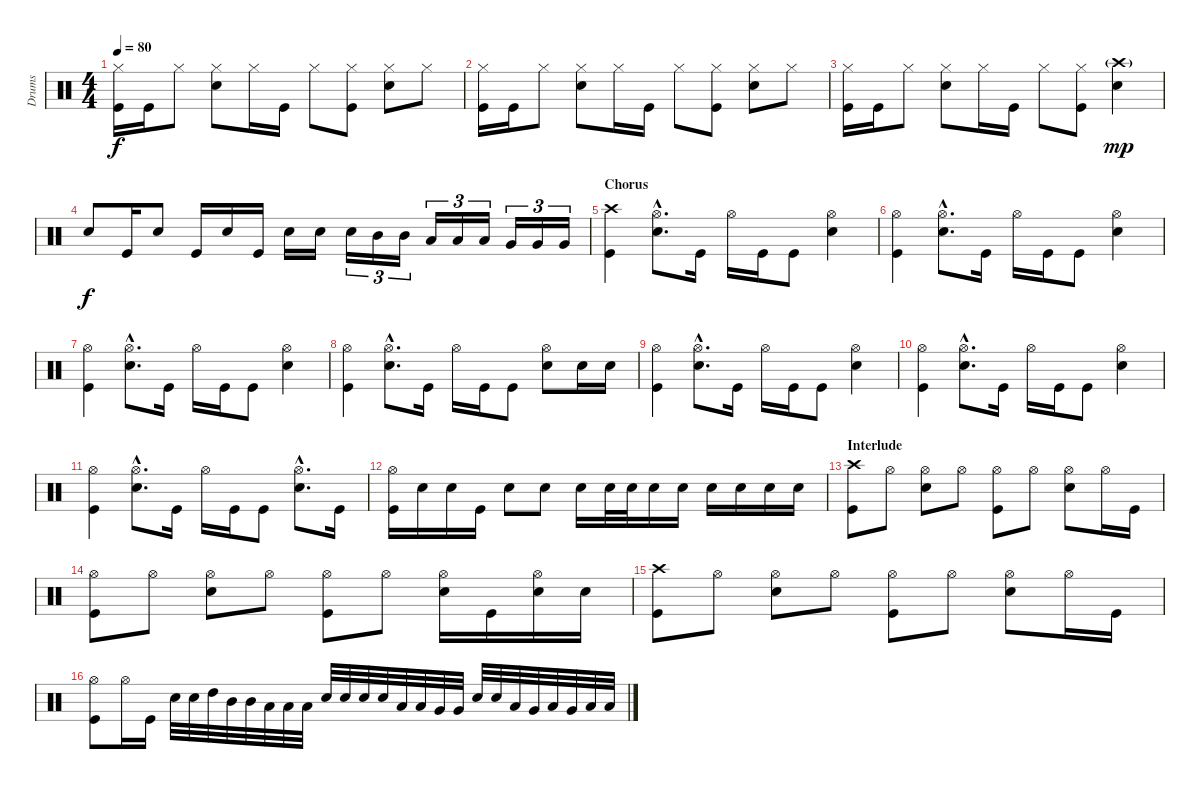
\track ("Drums" "Drums") {instrument percussion}
\staff {score}
\articulation defaults
\ts (4 4)
\tempo 80
\clef neutral
\ks c
("Hi-Hat (closed)" "Kick (hit)").16{dy f} "Kick (hit)".16 "Hi-Hat (closed)".8 ("Hi-Hat (closed)" "Electric Snare (hit)").8 "Hi-Hat (closed)".16 "Kick (hit)".16 "Hi-Hat (closed)".8 ("Hi-Hat (closed)" "Kick (hit)").8 ("Hi-Hat (closed)" "Electric Snare (hit)").8 "Hi-Hat (closed)".8 |
("Hi-Hat (closed)" "Kick (hit)").16 "Kick (hit)".16 "Hi-Hat (closed)".8 ("Hi-Hat (closed)" "Electric Snare (hit)").8 "Hi-Hat (closed)".16 "Kick (hit)".16 "Hi-Hat (closed)".8 ("Hi-Hat (closed)" "Kick (hit)").8 ("Hi-Hat (closed)" "Electric Snare (hit)").8 "Hi-Hat (closed)".8 |
("Hi-Hat (closed)" "Kick (hit)").16 "Kick (hit)".16 "Hi-Hat (closed)".8 ("Hi-Hat (closed)" "Electric Snare (hit)").8 "Hi-Hat (closed)".16 "Kick (hit)".16 "Hi-Hat (closed)".8 ("Hi-Hat (closed)" "Kick (hit)").8 ("Crash high (hit)"{g} "Electric Snare (hit)").4{dy mp} |
"Electric Snare (hit)".8{dy f} "Kick (hit)".16 "Electric Snare (hit)".8 "Kick (hit)".16 "Electric Snare (hit)".16 "Kick (hit)".16 "Electric Snare (hit)".16 "Electric Snare (hit)".16 "Electric Snare (hit)".16{tu (3 2)} "Mid Tom (hit)".16{tu (3 2)} "Mid Tom (hit)".16{tu (3 2)} "Low Tom (hit)".16{tu (3 2)} "Low Tom (hit)".16{tu (3 2)} "Low Tom (hit)".16{tu (3 2)} "Very Low Tom (hit)".16{tu (3 2)} "Very Low Tom (hit)".16{tu (3 2)} "Very Low Tom (hit)".16{tu (3 2)} |
\section ("" "Chorus")
("Crash high (hit)" "Kick (hit)").4 ("Hi-Hat (open)"{hac} "Electric Snare (hit)"{hac}).8{d} "Kick (hit)".16 "Hi-Hat (open)".16 "Kick (hit)".16 "Kick (hit)".8 ("Hi-Hat (open)" "Electric Snare (hit)").4 |
("Hi-Hat (open)" "Kick (hit)").4 ("Hi-Hat (open)"{hac} "Electric Snare (hit)"{hac}).8{d} "Kick (hit)".16 "Hi-Hat (open)".16 "Kick (hit)".16 "Kick (hit)".8 ("Hi-Hat (open)" "Electric Snare (hit)").4 |
("Hi-Hat (open)" "Kick (hit)").4 ("Hi-Hat (open)"{hac} "Electric Snare (hit)"{hac}).8{d} "Kick (hit)".16 "Hi-Hat (open)".16 "Kick (hit)".16 "Kick (hit)".8 ("Hi-Hat (open)" "Electric Snare (hit)").4 |
("Hi-Hat (open)" "Kick (hit)").4 ("Hi-Hat (open)"{hac} "Electric Snare (hit)"{hac}).8{d} "Kick (hit)".16 "Hi-Hat (open)".16 "Kick (hit)".16 "Kick (hit)".8 ("Hi-Hat (open)" "Electric Snare (hit)").8 "Electric Snare (hit)".16 "Electric Snare (hit)".16 |
("Hi-Hat (open)" "Kick (hit)").4 ("Hi-Hat (open)"{hac} "Electric Snare (hit)"{hac}).8{d} "Kick (hit)".16 "Hi-Hat (open)".16 "Kick (hit)".16 "Kick (hit)".8 ("Hi-Hat (open)" "Electric Snare (hit)").4 |
("Hi-Hat (open)" "Kick (hit)").4 ("Hi-Hat (open)"{hac} "Electric Snare (hit)"{hac}).8{d} "Kick (hit)".16 "Hi-Hat (open)".16 "Kick (hit)".16 "Kick (hit)".8 ("Hi-Hat (open)" "Electric Snare (hit)").4 |
("Hi-Hat (open)" "Kick (hit)").4 ("Hi-Hat (open)"{hac} "Electric Snare (hit)"{hac}).8{d} "Kick (hit)".16 "Hi-Hat (open)".16 "Kick (hit)".16 "Kick (hit)".8 ("Hi-Hat (open)"{hac} "Electric Snare (hit)"{hac}).8{d} "Kick (hit)".16 |
("Hi-Hat (open)" "Kick (hit)").16 "Electric Snare (hit)".16 "Electric Snare (hit)".16 "Kick (hit)".16 "Electric Snare (hit)".8 "Electric Snare (hit)".8 "Electric Snare (hit)".16 "Electric Snare (hit)".32 "Electric Snare (hit)".32 "Electric Snare (hit)".16 "Electric Snare (hit)".16 "Electric Snare (hit)".16 "Electric Snare (hit)".16 "Electric Snare (hit)".16 "Electric Snare (hit)".16 |
\section ("" "Interlude")
("Crash high (hit)" "Kick (hit)").8 "Hi-Hat (open)".8 ("Hi-Hat (open)" "Electric Snare (hit)").8 "Hi-Hat (open)".8 ("Hi-Hat (open)" "Kick (hit)").8 "Hi-Hat (open)".8 ("Hi-Hat (open)" "Electric Snare (hit)").8 "Hi-Hat (open)".16 "Kick (hit)".16 |
("Hi-Hat (open)" "Kick (hit)").8 "Hi-Hat (open)".8 ("Hi-Hat (open)" "Electric Snare (hit)").8 "Hi-Hat (open)".8 ("Hi-Hat (open)" "Kick (hit)").8 "Hi-Hat (open)".8 ("Hi-Hat (open)" "Electric Snare (hit)").16 "Kick (hit)".16 ("Hi-Hat (open)" "Electric Snare (hit)").16 "Electric Snare (hit)".16 |
("Crash high (hit)" "Kick (hit)").8 "Hi-Hat (open)".8 ("Hi-Hat (open)" "Electric Snare (hit)").8 "Hi-Hat (open)".8 ("Hi-Hat (open)" "Kick (hit)").8 "Hi-Hat (open)".8 ("Hi-Hat (open)" "Electric Snare (hit)").8 "Hi-Hat (open)".16 "Kick (hit)".16 |
("Hi-Hat (open)" "Kick (hit)").8 "Hi-Hat (open)".16 "Kick (hit)".16 "Electric Snare (hit)".32 "Electric Snare (hit)".32 "High Tom (hit)".32 "Mid Tom (hit)".32 "Mid Tom (hit)".32 "Low Tom (hit)".32 "Low Tom (hit)".32 "Low Tom (hit)".32 "Electric Snare (hit)".32 "Electric Snare (hit)".32 "Electric Snare (hit)".32 "Electric Snare (hit)".32 "Low Tom (hit)".32 "Low Tom (hit)".32 "Very Low Tom (hit)".32 "Very Low Tom (hit)".32 "Electric Snare (hit)".32 "Electric Snare (hit)".32 "Low Tom (hit)".32 "Very Low Tom (hit)".32 "Low Floor Tom (hit)".32 "Very Low Tom (hit)".32 "Low Tom (hit)".32 "Low Tom (hit)".32
